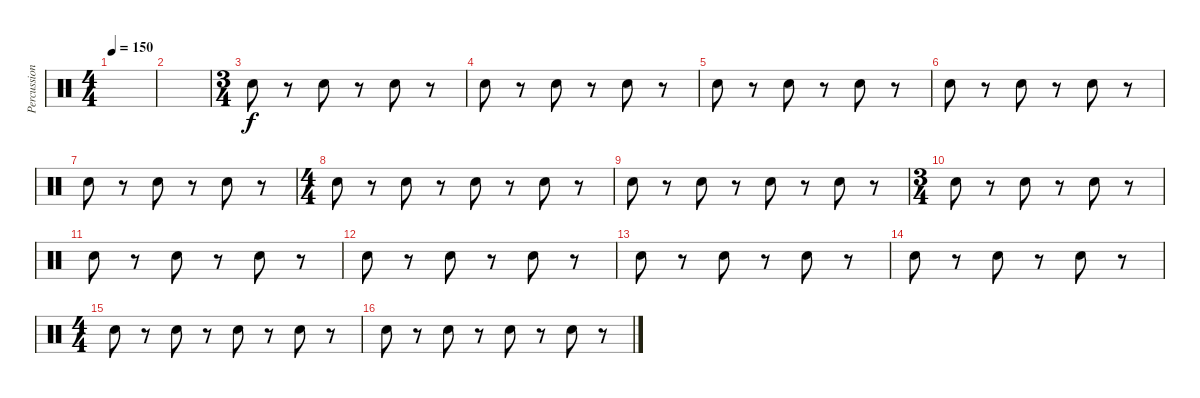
\track ("Percussion" "Percussion") {instrument percussion}
\staff {score}
\articulation defaults
\ts (4 4)
\tempo 150
\clef neutral
\ks c
|
|
\ts (3 4)
"Electric Snare (hit)".8 r.8 "Electric Snare (hit)".8 r.8 "Electric Snare (hit)".8 r.8 |
"Electric Snare (hit)".8 r.8 "Electric Snare (hit)".8 r.8 "Electric Snare (hit)".8 r.8 |
"Electric Snare (hit)".8 r.8 "Electric Snare (hit)".8 r.8 "Electric Snare (hit)".8 r.8 |
"Electric Snare (hit)".8 r.8 "Electric Snare (hit)".8 r.8 "Electric Snare (hit)".8 r.8 |
"Electric Snare (hit)".8 r.8 "Electric Snare (hit)".8 r.8 "Electric Snare (hit)".8 r.8 |
\ts (4 4)
"Electric Snare (hit)".8 r.8 "Electric Snare (hit)".8 r.8 "Electric Snare (hit)".8 r.8 "Electric Snare (hit)".8 r.8 |
"Electric Snare (hit)".8 r.8 "Electric Snare (hit)".8 r.8 "Electric Snare (hit)".8 r.8 "Electric Snare (hit)".8 r.8 |
\ts (3 4)
"Electric Snare (hit)".8 r.8 "Electric Snare (hit)".8 r.8 "Electric Snare (hit)".8 r.8 |
"Electric Snare (hit)".8 r.8 "Electric Snare (hit)".8 r.8 "Electric Snare (hit)".8 r.8 |
"Electric Snare (hit)".8 r.8 "Electric Snare (hit)".8 r.8 "Electric Snare (hit)".8 r.8 |
"Electric Snare (hit)".8 r.8 "Electric Snare (hit)".8 r.8 "Electric Snare (hit)".8 r.8 |
"Electric Snare (hit)".8 r.8 "Electric Snare (hit)".8 r.8 "Electric Snare (hit)".8 r.8 |
\ts (4 4)
"Electric Snare (hit)".8 r.8 "Electric Snare (hit)".8 r.8 "Electric Snare (hit)".8 r.8 "Electric Snare (hit)".8 r.8 |
"Electric Snare (hit)".8 r.8 "Electric Snare (hit)".8 r.8 "Electric Snare (hit)".8 r.8 "Electric Snare (hit)".8 r.8
